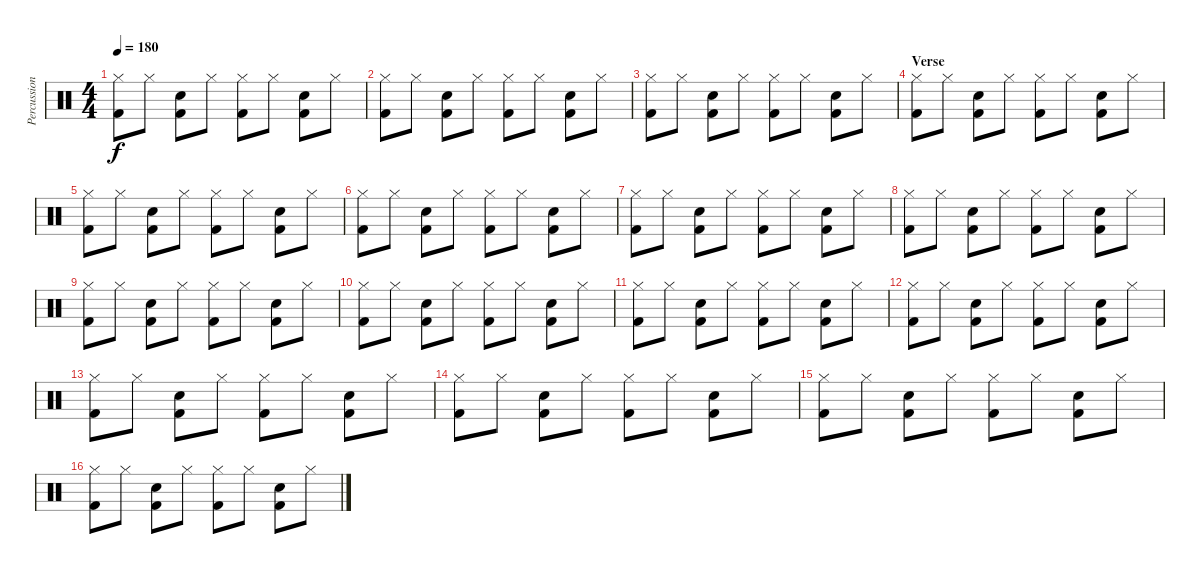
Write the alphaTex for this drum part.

\track ("Percussion" "Percussion") {instrument percussion}
\staff {score}
\articulation defaults
\ts (4 4)
\tempo 180
\clef neutral
\ks c
("Kick (hit) 2" "Hi-Hat (closed)").8{dy f} "Hi-Hat (closed)".8 ("Kick (hit) 2" "Snare (hit) 2").8 "Hi-Hat (closed)".8 ("Kick (hit) 2" "Hi-Hat (closed)").8 "Hi-Hat (closed)".8 ("Kick (hit) 2" "Electric Snare (hit)").8 "Hi-Hat (closed)".8 |
("Kick (hit) 2" "Hi-Hat (closed)").8 "Hi-Hat (closed)".8 ("Kick (hit) 2" "Snare (hit) 2").8 "Hi-Hat (closed)".8 ("Kick (hit) 2" "Hi-Hat (closed)").8 "Hi-Hat (closed)".8 ("Kick (hit) 2" "Electric Snare (hit)").8 "Hi-Hat (closed)".8 |
("Kick (hit) 2" "Hi-Hat (closed)").8 "Hi-Hat (closed)".8 ("Kick (hit) 2" "Snare (hit) 2").8 "Hi-Hat (closed)".8 ("Kick (hit) 2" "Hi-Hat (closed)").8 "Hi-Hat (closed)".8 ("Kick (hit) 2" "Electric Snare (hit)").8 "Hi-Hat (closed)".8 |
\section ("" "Verse")
("Kick (hit) 2" "Hi-Hat (closed)").8 "Hi-Hat (closed)".8 ("Kick (hit) 2" "Snare (hit) 2").8 "Hi-Hat (closed)".8 ("Kick (hit) 2" "Hi-Hat (closed)").8 "Hi-Hat (closed)".8 ("Kick (hit) 2" "Electric Snare (hit)").8 "Hi-Hat (closed)".8 |
("Kick (hit) 2" "Hi-Hat (closed)").8 "Hi-Hat (closed)".8 ("Kick (hit) 2" "Snare (hit) 2").8 "Hi-Hat (closed)".8 ("Kick (hit) 2" "Hi-Hat (closed)").8 "Hi-Hat (closed)".8 ("Kick (hit) 2" "Electric Snare (hit)").8 "Hi-Hat (closed)".8 |
("Kick (hit) 2" "Hi-Hat (closed)").8 "Hi-Hat (closed)".8 ("Kick (hit) 2" "Snare (hit) 2").8 "Hi-Hat (closed)".8 ("Kick (hit) 2" "Hi-Hat (closed)").8 "Hi-Hat (closed)".8 ("Kick (hit) 2" "Electric Snare (hit)").8 "Hi-Hat (closed)".8 |
("Kick (hit) 2" "Hi-Hat (closed)").8 "Hi-Hat (closed)".8 ("Kick (hit) 2" "Snare (hit) 2").8 "Hi-Hat (closed)".8 ("Kick (hit) 2" "Hi-Hat (closed)").8 "Hi-Hat (closed)".8 ("Kick (hit) 2" "Electric Snare (hit)").8 "Hi-Hat (closed)".8 |
("Kick (hit) 2" "Hi-Hat (closed)").8 "Hi-Hat (closed)".8 ("Kick (hit) 2" "Snare (hit) 2").8 "Hi-Hat (closed)".8 ("Kick (hit) 2" "Hi-Hat (closed)").8 "Hi-Hat (closed)".8 ("Kick (hit) 2" "Electric Snare (hit)").8 "Hi-Hat (closed)".8 |
("Kick (hit) 2" "Hi-Hat (closed)").8 "Hi-Hat (closed)".8 ("Kick (hit) 2" "Snare (hit) 2").8 "Hi-Hat (closed)".8 ("Kick (hit) 2" "Hi-Hat (closed)").8 "Hi-Hat (closed)".8 ("Kick (hit) 2" "Electric Snare (hit)").8 "Hi-Hat (closed)".8 |
("Kick (hit) 2" "Hi-Hat (closed)").8 "Hi-Hat (closed)".8 ("Kick (hit) 2" "Snare (hit) 2").8 "Hi-Hat (closed)".8 ("Kick (hit) 2" "Hi-Hat (closed)").8 "Hi-Hat (closed)".8 ("Kick (hit) 2" "Electric Snare (hit)").8 "Hi-Hat (closed)".8 |
("Kick (hit) 2" "Hi-Hat (closed)").8 "Hi-Hat (closed)".8 ("Kick (hit) 2" "Snare (hit) 2").8 "Hi-Hat (closed)".8 ("Kick (hit) 2" "Hi-Hat (closed)").8 "Hi-Hat (closed)".8 ("Kick (hit) 2" "Electric Snare (hit)").8 "Hi-Hat (closed)".8 |
("Kick (hit) 2" "Hi-Hat (closed)").8 "Hi-Hat (closed)".8 ("Kick (hit) 2" "Snare (hit) 2").8 "Hi-Hat (closed)".8 ("Kick (hit) 2" "Hi-Hat (closed)").8 "Hi-Hat (closed)".8 ("Kick (hit) 2" "Electric Snare (hit)").8 "Hi-Hat (closed)".8 |
("Kick (hit) 2" "Hi-Hat (closed)").8 "Hi-Hat (closed)".8 ("Kick (hit) 2" "Snare (hit) 2").8 "Hi-Hat (closed)".8 ("Kick (hit) 2" "Hi-Hat (closed)").8 "Hi-Hat (closed)".8 ("Kick (hit) 2" "Electric Snare (hit)").8 "Hi-Hat (closed)".8 |
("Kick (hit) 2" "Hi-Hat (closed)").8 "Hi-Hat (closed)".8 ("Kick (hit) 2" "Snare (hit) 2").8 "Hi-Hat (closed)".8 ("Kick (hit) 2" "Hi-Hat (closed)").8 "Hi-Hat (closed)".8 ("Kick (hit) 2" "Electric Snare (hit)").8 "Hi-Hat (closed)".8 |
("Kick (hit) 2" "Hi-Hat (closed)").8 "Hi-Hat (closed)".8 ("Kick (hit) 2" "Snare (hit) 2").8 "Hi-Hat (closed)".8 ("Kick (hit) 2" "Hi-Hat (closed)").8 "Hi-Hat (closed)".8 ("Kick (hit) 2" "Electric Snare (hit)").8 "Hi-Hat (closed)".8 |
("Kick (hit) 2" "Hi-Hat (closed)").8 "Hi-Hat (closed)".8 ("Kick (hit) 2" "Snare (hit) 2").8 "Hi-Hat (closed)".8 ("Kick (hit) 2" "Hi-Hat (closed)").8 "Hi-Hat (closed)".8 ("Kick (hit) 2" "Electric Snare (hit)").8 "Hi-Hat (closed)".8
